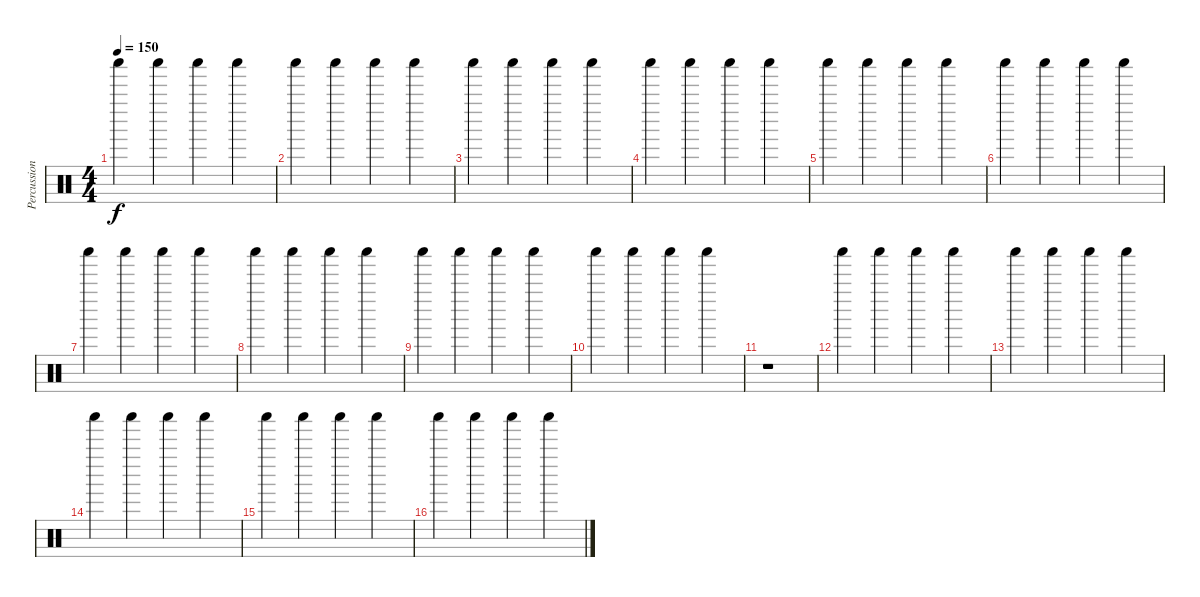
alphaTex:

\track ("Percussion - Aki Hakala" "Percussion") {instrument percussion}
\staff {score}
\articulation defaults
\ts (4 4)
\tempo 150
\clef neutral
\ks c "Shaker (hit)".4{dy f} "Shaker (hit)".4 "Shaker (hit)".4 "Shaker (hit)".4
|
"Shaker (hit)".4 "Shaker (hit)".4 "Shaker (hit)".4 "Shaker (hit)".4 |
"Shaker (hit)".4 "Shaker (hit)".4 "Shaker (hit)".4 "Shaker (hit)".4 |
"Shaker (hit)".4 "Shaker (hit)".4 "Shaker (hit)".4 "Shaker (hit)".4 |
"Shaker (hit)".4 "Shaker (hit)".4 "Shaker (hit)".4 "Shaker (hit)".4 |
"Shaker (hit)".4 "Shaker (hit)".4 "Shaker (hit)".4 "Shaker (hit)".4 |
"Shaker (hit)".4 "Shaker (hit)".4 "Shaker (hit)".4 "Shaker (hit)".4 |
"Shaker (hit)".4 "Shaker (hit)".4 "Shaker (hit)".4 "Shaker (hit)".4 |
"Shaker (hit)".4 "Shaker (hit)".4 "Shaker (hit)".4 "Shaker (hit)".4 |
"Shaker (hit)".4 "Shaker (hit)".4 "Shaker (hit)".4 "Shaker (hit)".4 |
r.1 |
"Shaker (hit)".4 "Shaker (hit)".4 "Shaker (hit)".4 "Shaker (hit)".4 |
"Shaker (hit)".4 "Shaker (hit)".4 "Shaker (hit)".4 "Shaker (hit)".4 |
"Shaker (hit)".4 "Shaker (hit)".4 "Shaker (hit)".4 "Shaker (hit)".4 |
"Shaker (hit)".4 "Shaker (hit)".4 "Shaker (hit)".4 "Shaker (hit)".4 |
"Shaker (hit)".4 "Shaker (hit)".4 "Shaker (hit)".4 "Shaker (hit)".4
